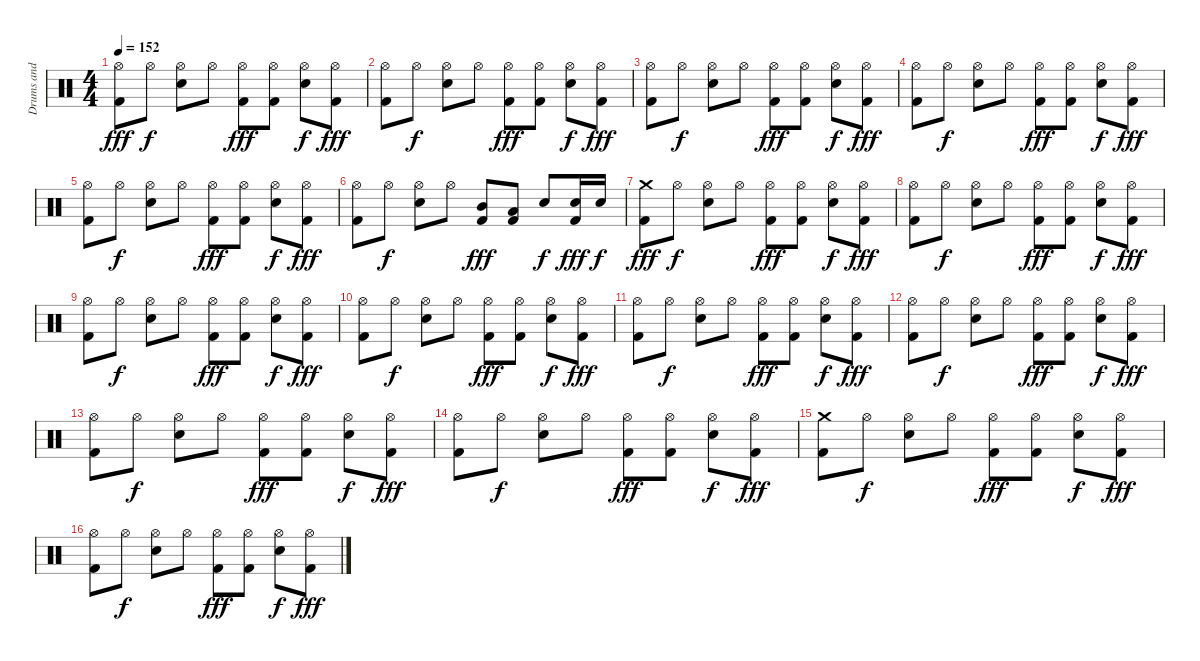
\track ("Drums and Percussion" "Drums and ") {instrument percussion}
\staff {score}
\articulation defaults
\ts (4 4)
\tempo 152
\clef neutral
\ks c
("Hi-Hat (open)" "Kick (hit) 2").8{dy fff} "Hi-Hat (open)".8{dy f} ("Hi-Hat (open)" "Snare (hit) 2").8 "Hi-Hat (open)".8 ("Hi-Hat (open)" "Kick (hit) 2").8{dy fff} ("Hi-Hat (open)" "Kick (hit) 2").8 ("Hi-Hat (open)" "Snare (hit) 2").8{dy f} ("Hi-Hat (open)" "Kick (hit) 2").8{dy fff} |
("Hi-Hat (open)" "Kick (hit) 2").8 "Hi-Hat (open)".8{dy f} ("Hi-Hat (open)" "Snare (hit) 2").8 "Hi-Hat (open)".8 ("Hi-Hat (open)" "Kick (hit) 2").8{dy fff} ("Hi-Hat (open)" "Kick (hit) 2").8 ("Hi-Hat (open)" "Snare (hit) 2").8{dy f} ("Hi-Hat (open)" "Kick (hit) 2").8{dy fff} |
("Hi-Hat (open)" "Kick (hit) 2").8 "Hi-Hat (open)".8{dy f} ("Hi-Hat (open)" "Snare (hit) 2").8 "Hi-Hat (open)".8 ("Hi-Hat (open)" "Kick (hit) 2").8{dy fff} ("Hi-Hat (open)" "Kick (hit) 2").8 ("Hi-Hat (open)" "Snare (hit) 2").8{dy f} ("Hi-Hat (open)" "Kick (hit) 2").8{dy fff} |
("Hi-Hat (open)" "Kick (hit) 2").8 "Hi-Hat (open)".8{dy f} ("Hi-Hat (open)" "Snare (hit) 2").8 "Hi-Hat (open)".8 ("Hi-Hat (open)" "Kick (hit) 2").8{dy fff} ("Hi-Hat (open)" "Kick (hit) 2").8 ("Hi-Hat (open)" "Snare (hit) 2").8{dy f} ("Hi-Hat (open)" "Kick (hit) 2").8{dy fff} |
("Hi-Hat (open)" "Kick (hit) 2").8 "Hi-Hat (open)".8{dy f} ("Hi-Hat (open)" "Snare (hit) 2").8 "Hi-Hat (open)".8 ("Hi-Hat (open)" "Kick (hit) 2").8{dy fff} ("Hi-Hat (open)" "Kick (hit) 2").8 ("Hi-Hat (open)" "Snare (hit) 2").8{dy f} ("Hi-Hat (open)" "Kick (hit) 2").8{dy fff} |
("Hi-Hat (open)" "Kick (hit) 2").8 "Hi-Hat (open)".8{dy f} ("Hi-Hat (open)" "Snare (hit) 2").8 "Hi-Hat (open)".8 ("Mid Tom (hit)" "Kick (hit) 2").8{dy fff} ("Low Tom (hit)" "Kick (hit) 2").8 "Snare (hit) 2".8{dy f} ("Snare (hit) 2" "Kick (hit) 2").16{dy fff} "Snare (hit) 2".16{dy f} |
("Crash medium (hit)" "Kick (hit) 2").8{dy fff} "Hi-Hat (open)".8{dy f} ("Hi-Hat (open)" "Snare (hit) 2").8 "Hi-Hat (open)".8 ("Hi-Hat (open)" "Kick (hit) 2").8{dy fff} ("Hi-Hat (open)" "Kick (hit) 2").8 ("Hi-Hat (open)" "Snare (hit) 2").8{dy f} ("Hi-Hat (open)" "Kick (hit) 2").8{dy fff} |
("Hi-Hat (open)" "Kick (hit) 2").8 "Hi-Hat (open)".8{dy f} ("Hi-Hat (open)" "Snare (hit) 2").8 "Hi-Hat (open)".8 ("Hi-Hat (open)" "Kick (hit) 2").8{dy fff} ("Hi-Hat (open)" "Kick (hit) 2").8 ("Hi-Hat (open)" "Snare (hit) 2").8{dy f} ("Hi-Hat (open)" "Kick (hit) 2").8{dy fff} |
("Hi-Hat (open)" "Kick (hit) 2").8 "Hi-Hat (open)".8{dy f} ("Hi-Hat (open)" "Snare (hit) 2").8 "Hi-Hat (open)".8 ("Hi-Hat (open)" "Kick (hit) 2").8{dy fff} ("Hi-Hat (open)" "Kick (hit) 2").8 ("Hi-Hat (open)" "Snare (hit) 2").8{dy f} ("Hi-Hat (open)" "Kick (hit) 2").8{dy fff} |
("Hi-Hat (open)" "Kick (hit) 2").8 "Hi-Hat (open)".8{dy f} ("Hi-Hat (open)" "Snare (hit) 2").8 "Hi-Hat (open)".8 ("Hi-Hat (open)" "Kick (hit) 2").8{dy fff} ("Hi-Hat (open)" "Kick (hit) 2").8 ("Hi-Hat (open)" "Snare (hit) 2").8{dy f} ("Hi-Hat (open)" "Kick (hit) 2").8{dy fff} |
("Hi-Hat (open)" "Kick (hit) 2").8 "Hi-Hat (open)".8{dy f} ("Hi-Hat (open)" "Snare (hit) 2").8 "Hi-Hat (open)".8 ("Hi-Hat (open)" "Kick (hit) 2").8{dy fff} ("Hi-Hat (open)" "Kick (hit) 2").8 ("Hi-Hat (open)" "Snare (hit) 2").8{dy f} ("Hi-Hat (open)" "Kick (hit) 2").8{dy fff} |
("Hi-Hat (open)" "Kick (hit) 2").8 "Hi-Hat (open)".8{dy f} ("Hi-Hat (open)" "Snare (hit) 2").8 "Hi-Hat (open)".8 ("Hi-Hat (open)" "Kick (hit) 2").8{dy fff} ("Hi-Hat (open)" "Kick (hit) 2").8 ("Hi-Hat (open)" "Snare (hit) 2").8{dy f} ("Hi-Hat (open)" "Kick (hit) 2").8{dy fff} |
("Hi-Hat (open)" "Kick (hit) 2").8 "Hi-Hat (open)".8{dy f} ("Hi-Hat (open)" "Snare (hit) 2").8 "Hi-Hat (open)".8 ("Hi-Hat (open)" "Kick (hit) 2").8{dy fff} ("Hi-Hat (open)" "Kick (hit) 2").8 ("Hi-Hat (open)" "Snare (hit) 2").8{dy f} ("Hi-Hat (open)" "Kick (hit) 2").8{dy fff} |
("Hi-Hat (open)" "Kick (hit) 2").8 "Hi-Hat (open)".8{dy f} ("Hi-Hat (open)" "Snare (hit) 2").8 "Hi-Hat (open)".8 ("Hi-Hat (open)" "Kick (hit) 2").8{dy fff} ("Hi-Hat (open)" "Kick (hit) 2").8 ("Hi-Hat (open)" "Snare (hit) 2").8{dy f} ("Hi-Hat (open)" "Kick (hit) 2").8{dy fff} |
("Crash medium (hit)" "Kick (hit) 2").8 "Hi-Hat (open)".8{dy f} ("Hi-Hat (open)" "Snare (hit) 2").8 "Hi-Hat (open)".8 ("Hi-Hat (open)" "Kick (hit) 2").8{dy fff} ("Hi-Hat (open)" "Kick (hit) 2").8 ("Hi-Hat (open)" "Snare (hit) 2").8{dy f} ("Hi-Hat (open)" "Kick (hit) 2").8{dy fff} |
("Hi-Hat (open)" "Kick (hit) 2").8 "Hi-Hat (open)".8{dy f} ("Hi-Hat (open)" "Snare (hit) 2").8 "Hi-Hat (open)".8 ("Hi-Hat (open)" "Kick (hit) 2").8{dy fff} ("Hi-Hat (open)" "Kick (hit) 2").8 ("Hi-Hat (open)" "Snare (hit) 2").8{dy f} ("Hi-Hat (open)" "Kick (hit) 2").8{dy fff}
